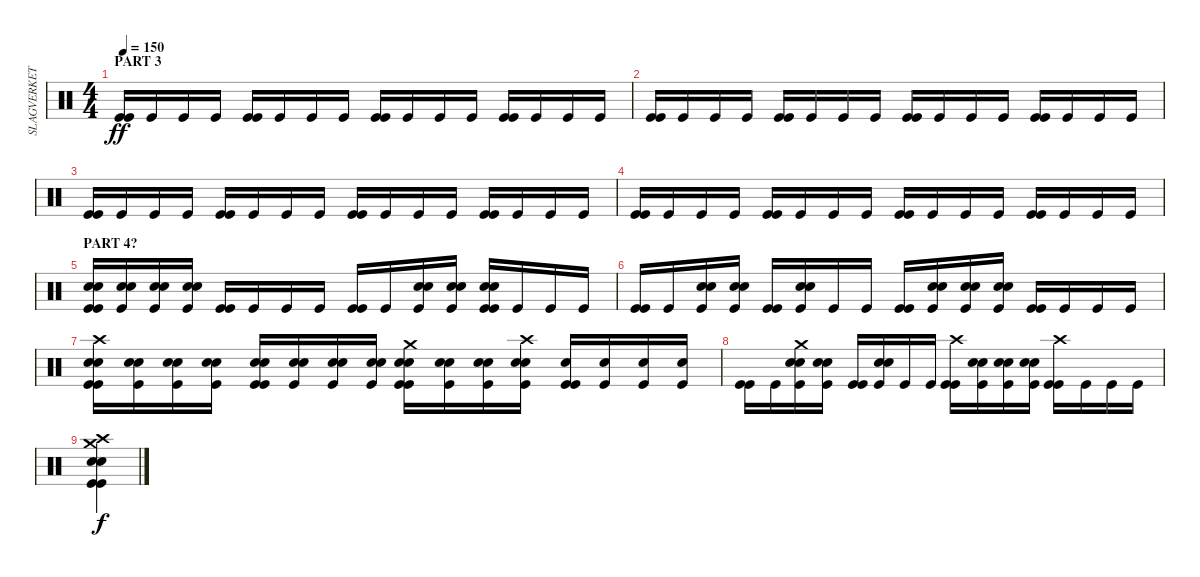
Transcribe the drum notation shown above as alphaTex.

\track ("SLAGVERKET KAGGE" "SLAGVERKET") {instrument percussion}
\staff {score}
\articulation defaults
\ts (4 4)
\section ("" "PART 3")
\tempo 150
\clef neutral
\ks c
("Kick (hit)" "Kick (hit)").16{dy ff} "Kick (hit)".16 "Kick (hit)".16 "Kick (hit)".16 ("Kick (hit)" "Kick (hit)").16 "Kick (hit)".16 "Kick (hit)".16 "Kick (hit)".16 ("Kick (hit)" "Kick (hit)").16 "Kick (hit)".16 "Kick (hit)".16 "Kick (hit)".16 ("Kick (hit)" "Kick (hit)").16 "Kick (hit)".16 "Kick (hit)".16 "Kick (hit)".16 |
("Kick (hit)" "Kick (hit)").16 "Kick (hit)".16 "Kick (hit)".16 "Kick (hit)".16 ("Kick (hit)" "Kick (hit)").16 "Kick (hit)".16 "Kick (hit)".16 "Kick (hit)".16 ("Kick (hit)" "Kick (hit)").16 "Kick (hit)".16 "Kick (hit)".16 "Kick (hit)".16 ("Kick (hit)" "Kick (hit)").16 "Kick (hit)".16 "Kick (hit)".16 "Kick (hit)".16 |
("Kick (hit)" "Kick (hit)").16 "Kick (hit)".16 "Kick (hit)".16 "Kick (hit)".16 ("Kick (hit)" "Kick (hit)").16 "Kick (hit)".16 "Kick (hit)".16 "Kick (hit)".16 ("Kick (hit)" "Kick (hit)").16 "Kick (hit)".16 "Kick (hit)".16 "Kick (hit)".16 ("Kick (hit)" "Kick (hit)").16 "Kick (hit)".16 "Kick (hit)".16 "Kick (hit)".16 |
("Kick (hit)" "Kick (hit)").16 "Kick (hit)".16 "Kick (hit)".16 "Kick (hit)".16 ("Kick (hit)" "Kick (hit)").16 "Kick (hit)".16 "Kick (hit)".16 "Kick (hit)".16 ("Kick (hit)" "Kick (hit)").16 "Kick (hit)".16 "Kick (hit)".16 "Kick (hit)".16 ("Kick (hit)" "Kick (hit)").16 "Kick (hit)".16 "Kick (hit)".16 "Kick (hit)".16 |
\section ("" "PART 4?")
("Electric Snare (hit)" "Electric Snare (hit)" "Kick (hit)" "Kick (hit)").16 ("Electric Snare (hit)" "Electric Snare (hit)" "Kick (hit)").16 ("Electric Snare (hit)" "Electric Snare (hit)" "Kick (hit)").16 ("Electric Snare (hit)" "Electric Snare (hit)" "Kick (hit)").16 ("Kick (hit)" "Kick (hit)").16 "Kick (hit)".16 "Kick (hit)".16 "Kick (hit)".16 ("Kick (hit)" "Kick (hit)").16 "Kick (hit)".16 ("Electric Snare (hit)" "Electric Snare (hit)" "Kick (hit)").16 ("Electric Snare (hit)" "Electric Snare (hit)" "Kick (hit)").16 ("Electric Snare (hit)" "Electric Snare (hit)" "Kick (hit)" "Kick (hit)").16 "Kick (hit)".16 "Kick (hit)".16 "Kick (hit)".16 |
("Kick (hit)" "Kick (hit)").16 "Kick (hit)".16 ("Electric Snare (hit)" "Electric Snare (hit)" "Kick (hit)").16 ("Electric Snare (hit)" "Electric Snare (hit)" "Kick (hit)").16 ("Kick (hit)" "Kick (hit)").16 ("Electric Snare (hit)" "Electric Snare (hit)" "Kick (hit)").16 "Kick (hit)".16 "Kick (hit)".16 ("Kick (hit)" "Kick (hit)").16 ("Electric Snare (hit)" "Electric Snare (hit)" "Kick (hit)").16 ("Electric Snare (hit)" "Electric Snare (hit)" "Kick (hit)").16 ("Electric Snare (hit)" "Electric Snare (hit)" "Kick (hit)").16 ("Kick (hit)" "Kick (hit)").16 "Kick (hit)".16 "Kick (hit)".16 "Kick (hit)".16 |
("Crash high (hit)" "Electric Snare (hit)" "Electric Snare (hit)" "Kick (hit)" "Kick (hit)").16 ("Electric Snare (hit)" "Electric Snare (hit)" "Kick (hit)").16 ("Electric Snare (hit)" "Electric Snare (hit)" "Kick (hit)").16 ("Electric Snare (hit)" "Electric Snare (hit)" "Kick (hit)").16 ("Electric Snare (hit)" "Snare (hit) 2" "Kick (hit)" "Kick (hit)").16 ("Snare (hit) 2" "Snare (hit) 2" "Kick (hit)").16 ("Snare (hit) 2" "Snare (hit) 2" "Kick (hit)").16 ("Electric Snare (hit)" "Snare (hit) 2" "Kick (hit)").16 ("Crash medium (hit)" "Electric Snare (hit)" "Electric Snare (hit)" "Kick (hit)" "Kick (hit)").16 ("Electric Snare (hit)" "Electric Snare (hit)" "Kick (hit)").16 ("Electric Snare (hit)" "Electric Snare (hit)" "Kick (hit)").16 ("Crash high (hit)" "Electric Snare (hit)" "Electric Snare (hit)" "Kick (hit)").16 ("Snare (hit) 2" "Kick (hit)" "Kick (hit)").16 ("Snare (hit) 2" "Kick (hit)").16 ("Electric Snare (hit)" "Kick (hit)").16 ("Electric Snare (hit)" "Kick (hit)").16 |
("Kick (hit)" "Kick (hit)").16 "Kick (hit)".16 ("Crash medium (hit)" "Electric Snare (hit)" "Electric Snare (hit)" "Kick (hit)").16 ("Electric Snare (hit)" "Electric Snare (hit)" "Kick (hit)").16 ("Kick (hit)" "Kick (hit)").16 ("Electric Snare (hit)" "Electric Snare (hit)" "Kick (hit)").16 "Kick (hit)".16 "Kick (hit)".16 ("Crash high (hit)" "Kick (hit)" "Kick (hit)").16 ("Electric Snare (hit)" "Electric Snare (hit)" "Kick (hit)").16 ("Electric Snare (hit)" "Electric Snare (hit)" "Kick (hit)").16 ("Electric Snare (hit)" "Electric Snare (hit)" "Kick (hit)").16 ("Crash high (hit)" "Kick (hit)" "Kick (hit)").16 "Kick (hit)".16 "Kick (hit)".16 "Kick (hit)".16 |
("Crash high (hit)" "Crash medium (hit)" "Electric Snare (hit)" "Snare (hit) 2" "Kick (hit)" "Kick (hit)").4{dy f}
